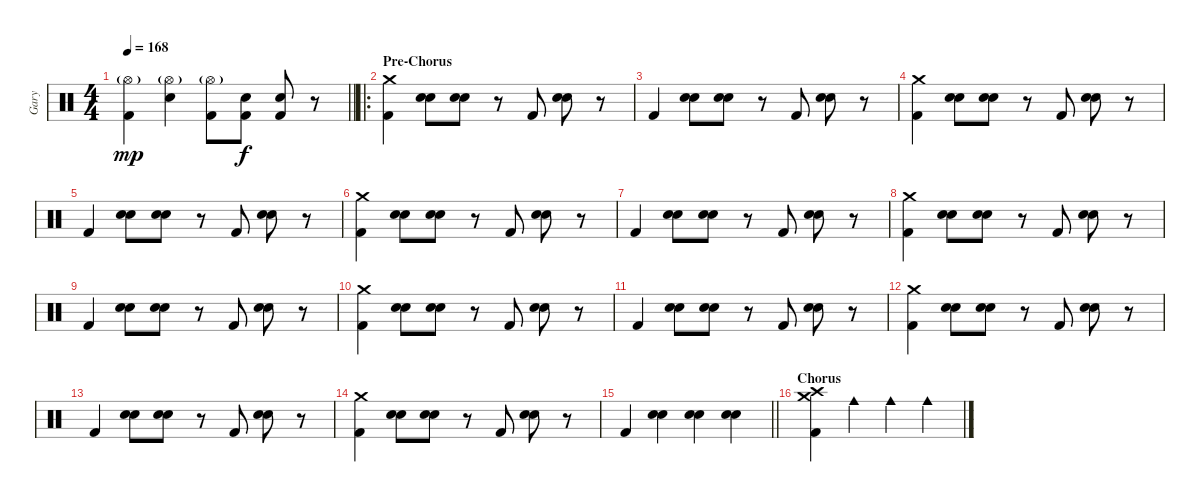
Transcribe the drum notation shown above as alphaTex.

\track ("Gary" "Gary") {instrument percussion}
\staff {score}
\articulation defaults
\ts (4 4)
\tempo 168
\clef neutral
\barLineRight lightlight
\ks c
("Hi-Hat (open)"{g} "Kick (hit) 2").4{dy mp} ("Hi-Hat (open)"{g} "Electric Snare (hit)").4 ("Hi-Hat (open)"{g} "Kick (hit) 2").8 ("Electric Snare (hit)" "Kick (hit) 2").8{dy f} ("Electric Snare (hit)" "Kick (hit) 2").8 r.8 |
\ro
\section ("" "Pre-Chorus")
("Crash medium (hit)" "Kick (hit) 2").4 ("Electric Snare (hit)" "Electric Snare (hit)").8{bu 120} ("Electric Snare (hit)" "Electric Snare (hit)").8{bu 120} r.8 "Kick (hit) 2".8 ("Electric Snare (hit)" "Electric Snare (hit)").8{bu 120} r.8 |
"Kick (hit) 2".4 ("Electric Snare (hit)" "Electric Snare (hit)").8{bu 120} ("Electric Snare (hit)" "Electric Snare (hit)").8{bu 120} r.8 "Kick (hit) 2".8 ("Electric Snare (hit)" "Electric Snare (hit)").8{bu 120} r.8 |
("Crash medium (hit)" "Kick (hit) 2").4 ("Electric Snare (hit)" "Electric Snare (hit)").8{bu 120} ("Electric Snare (hit)" "Electric Snare (hit)").8{bu 120} r.8 "Kick (hit) 2".8 ("Electric Snare (hit)" "Electric Snare (hit)").8{bu 120} r.8 |
"Kick (hit) 2".4 ("Electric Snare (hit)" "Electric Snare (hit)").8{bu 120} ("Electric Snare (hit)" "Electric Snare (hit)").8{bu 120} r.8 "Kick (hit) 2".8 ("Electric Snare (hit)" "Electric Snare (hit)").8{bu 120} r.8 |
("Crash medium (hit)" "Kick (hit) 2").4 ("Electric Snare (hit)" "Electric Snare (hit)").8{bu 120} ("Electric Snare (hit)" "Electric Snare (hit)").8{bu 120} r.8 "Kick (hit) 2".8 ("Electric Snare (hit)" "Electric Snare (hit)").8{bu 120} r.8 |
"Kick (hit) 2".4 ("Electric Snare (hit)" "Electric Snare (hit)").8{bu 120} ("Electric Snare (hit)" "Electric Snare (hit)").8{bu 120} r.8 "Kick (hit) 2".8 ("Electric Snare (hit)" "Electric Snare (hit)").8{bu 120} r.8 |
("Crash medium (hit)" "Kick (hit) 2").4 ("Electric Snare (hit)" "Electric Snare (hit)").8{bu 120} ("Electric Snare (hit)" "Electric Snare (hit)").8{bu 120} r.8 "Kick (hit) 2".8 ("Electric Snare (hit)" "Electric Snare (hit)").8{bu 120} r.8 |
"Kick (hit) 2".4 ("Electric Snare (hit)" "Electric Snare (hit)").8{bu 120} ("Electric Snare (hit)" "Electric Snare (hit)").8{bu 120} r.8 "Kick (hit) 2".8 ("Electric Snare (hit)" "Electric Snare (hit)").8{bu 120} r.8 |
("Crash medium (hit)" "Kick (hit) 2").4 ("Electric Snare (hit)" "Electric Snare (hit)").8{bu 120} ("Electric Snare (hit)" "Electric Snare (hit)").8{bu 120} r.8 "Kick (hit) 2".8 ("Electric Snare (hit)" "Electric Snare (hit)").8{bu 120} r.8 |
"Kick (hit) 2".4 ("Electric Snare (hit)" "Electric Snare (hit)").8{bu 120} ("Electric Snare (hit)" "Electric Snare (hit)").8{bu 120} r.8 "Kick (hit) 2".8 ("Electric Snare (hit)" "Electric Snare (hit)").8{bu 120} r.8 |
("Crash medium (hit)" "Kick (hit) 2").4 ("Electric Snare (hit)" "Electric Snare (hit)").8{bu 120} ("Electric Snare (hit)" "Electric Snare (hit)").8{bu 120} r.8 "Kick (hit) 2".8 ("Electric Snare (hit)" "Electric Snare (hit)").8{bu 120} r.8 |
"Kick (hit) 2".4 ("Electric Snare (hit)" "Electric Snare (hit)").8{bu 120} ("Electric Snare (hit)" "Electric Snare (hit)").8{bu 120} r.8 "Kick (hit) 2".8 ("Electric Snare (hit)" "Electric Snare (hit)").8{bu 120} r.8 |
("Crash medium (hit)" "Kick (hit) 2").4 ("Electric Snare (hit)" "Electric Snare (hit)").8{bu 120} ("Electric Snare (hit)" "Electric Snare (hit)").8{bu 120} r.8 "Kick (hit) 2".8 ("Electric Snare (hit)" "Electric Snare (hit)").8{bu 120} r.8 |
\barLineRight lightlight "Kick (hit) 2".4
("Electric Snare (hit)" "Electric Snare (hit)").4{bu 120} ("Electric Snare (hit)" "Electric Snare (hit)").4{bu 120} ("Electric Snare (hit)" "Electric Snare (hit)").4{bu 120} |
\section ("" "Chorus")
("Crash medium (hit)" "Crash high (hit)" "Kick (hit) 2").4 "Cowbell medium (hit)".4 "Cowbell medium (hit)".4 "Cowbell medium (hit)".4
